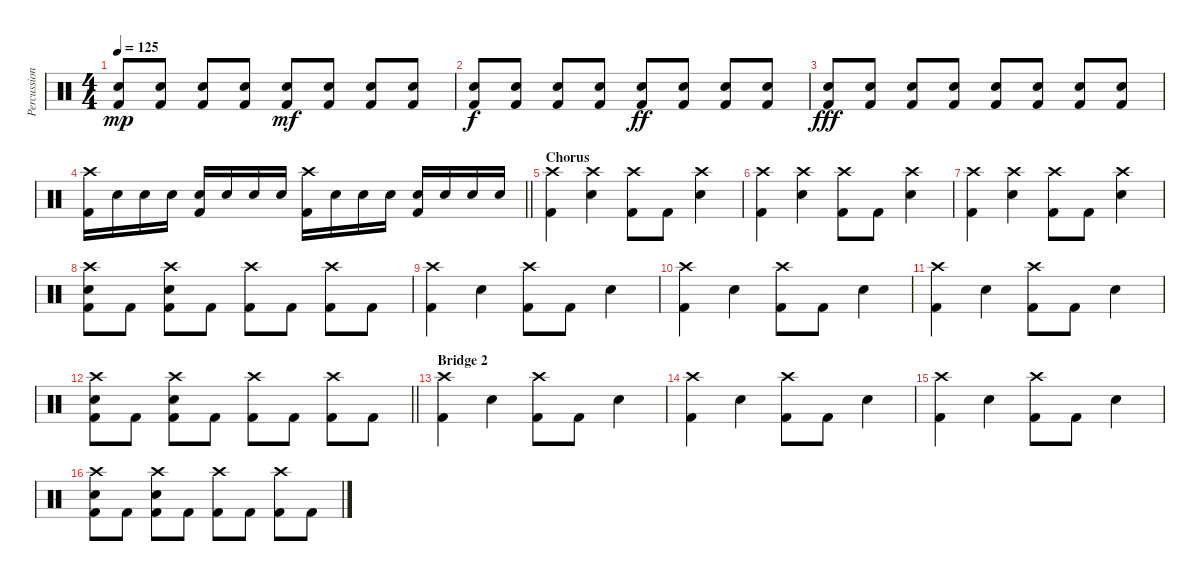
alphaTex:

\track ("Percussion" "Percussion") {instrument percussion}
\staff {score}
\articulation defaults
\ts (4 4)
\tempo 125
\clef neutral
\ks c
("Electric Snare (hit)" "Kick (hit) 2").8{dy mp} ("Electric Snare (hit)" "Kick (hit) 2").8 ("Electric Snare (hit)" "Kick (hit) 2").8 ("Electric Snare (hit)" "Kick (hit) 2").8 ("Electric Snare (hit)" "Kick (hit) 2").8{dy mf} ("Electric Snare (hit)" "Kick (hit) 2").8 ("Electric Snare (hit)" "Kick (hit) 2").8 ("Electric Snare (hit)" "Kick (hit) 2").8 |
("Electric Snare (hit)" "Kick (hit) 2").8{dy f} ("Electric Snare (hit)" "Kick (hit) 2").8 ("Electric Snare (hit)" "Kick (hit) 2").8 ("Electric Snare (hit)" "Kick (hit) 2").8 ("Electric Snare (hit)" "Kick (hit) 2").8{dy ff} ("Electric Snare (hit)" "Kick (hit) 2").8 ("Electric Snare (hit)" "Kick (hit) 2").8 ("Electric Snare (hit)" "Kick (hit) 2").8 |
("Electric Snare (hit)" "Kick (hit) 2").8{dy fff} ("Electric Snare (hit)" "Kick (hit) 2").8 ("Electric Snare (hit)" "Kick (hit) 2").8 ("Electric Snare (hit)" "Kick (hit) 2").8 ("Electric Snare (hit)" "Kick (hit) 2").8 ("Electric Snare (hit)" "Kick (hit) 2").8 ("Electric Snare (hit)" "Kick (hit) 2").8 ("Electric Snare (hit)" "Kick (hit) 2").8 |
\barLineRight lightlight
("Crash high (hit)" "Kick (hit) 2").16 "Electric Snare (hit)".16 "Electric Snare (hit)".16 "Electric Snare (hit)".16 ("Electric Snare (hit)" "Kick (hit) 2").16 "Electric Snare (hit)".16 "Electric Snare (hit)".16 "Electric Snare (hit)".16 ("Crash high (hit)" "Kick (hit) 2").16 "Electric Snare (hit)".16 "Electric Snare (hit)".16 "Electric Snare (hit)".16 ("Electric Snare (hit)" "Kick (hit) 2").16 "Electric Snare (hit)".16 "Electric Snare (hit)".16 "Electric Snare (hit)".16 |
\section ("" "Chorus")
("Crash high (hit)" "Kick (hit) 2").4 ("Crash high (hit)" "Electric Snare (hit)").4 ("Crash high (hit)" "Kick (hit) 2").8 "Kick (hit) 2".8 ("Crash high (hit)" "Electric Snare (hit)").4 |
("Crash high (hit)" "Kick (hit) 2").4 ("Crash high (hit)" "Electric Snare (hit)").4 ("Crash high (hit)" "Kick (hit) 2").8 "Kick (hit) 2".8 ("Crash high (hit)" "Electric Snare (hit)").4 |
("Crash high (hit)" "Kick (hit) 2").4 ("Crash high (hit)" "Electric Snare (hit)").4 ("Crash high (hit)" "Kick (hit) 2").8 "Kick (hit) 2".8 ("Crash high (hit)" "Electric Snare (hit)").4 |
("Crash high (hit)" "Electric Snare (hit)" "Kick (hit) 2").8 "Kick (hit) 2".8 ("Crash high (hit)" "Electric Snare (hit)" "Kick (hit) 2").8 "Kick (hit) 2".8 ("Crash high (hit)" "Kick (hit) 2").8 "Kick (hit) 2".8 ("Crash high (hit)" "Kick (hit) 2").8 "Kick (hit) 2".8 |
("Crash high (hit)" "Kick (hit) 2").4 "Electric Snare (hit)".4 ("Crash high (hit)" "Kick (hit) 2").8 "Kick (hit) 2".8 "Electric Snare (hit)".4 |
("Crash high (hit)" "Kick (hit) 2").4 "Electric Snare (hit)".4 ("Crash high (hit)" "Kick (hit) 2").8 "Kick (hit) 2".8 "Electric Snare (hit)".4 |
("Crash high (hit)" "Kick (hit) 2").4 "Electric Snare (hit)".4 ("Crash high (hit)" "Kick (hit) 2").8 "Kick (hit) 2".8 "Electric Snare (hit)".4 |
\barLineRight lightlight
("Crash high (hit)" "Electric Snare (hit)" "Kick (hit) 2").8 "Kick (hit) 2".8 ("Crash high (hit)" "Electric Snare (hit)" "Kick (hit) 2").8 "Kick (hit) 2".8 ("Crash high (hit)" "Kick (hit) 2").8 "Kick (hit) 2".8 ("Crash high (hit)" "Kick (hit) 2").8 "Kick (hit) 2".8 |
\section ("" "Bridge 2")
("Crash high (hit)" "Kick (hit) 2").4 "Electric Snare (hit)".4 ("Crash high (hit)" "Kick (hit) 2").8 "Kick (hit) 2".8 "Electric Snare (hit)".4 |
("Crash high (hit)" "Kick (hit) 2").4 "Electric Snare (hit)".4 ("Crash high (hit)" "Kick (hit) 2").8 "Kick (hit) 2".8 "Electric Snare (hit)".4 |
("Crash high (hit)" "Kick (hit) 2").4 "Electric Snare (hit)".4 ("Crash high (hit)" "Kick (hit) 2").8 "Kick (hit) 2".8 "Electric Snare (hit)".4 |
("Crash high (hit)" "Electric Snare (hit)" "Kick (hit) 2").8 "Kick (hit) 2".8 ("Crash high (hit)" "Electric Snare (hit)" "Kick (hit) 2").8 "Kick (hit) 2".8 ("Crash high (hit)" "Kick (hit) 2").8 "Kick (hit) 2".8 ("Crash high (hit)" "Kick (hit) 2").8 "Kick (hit) 2".8
